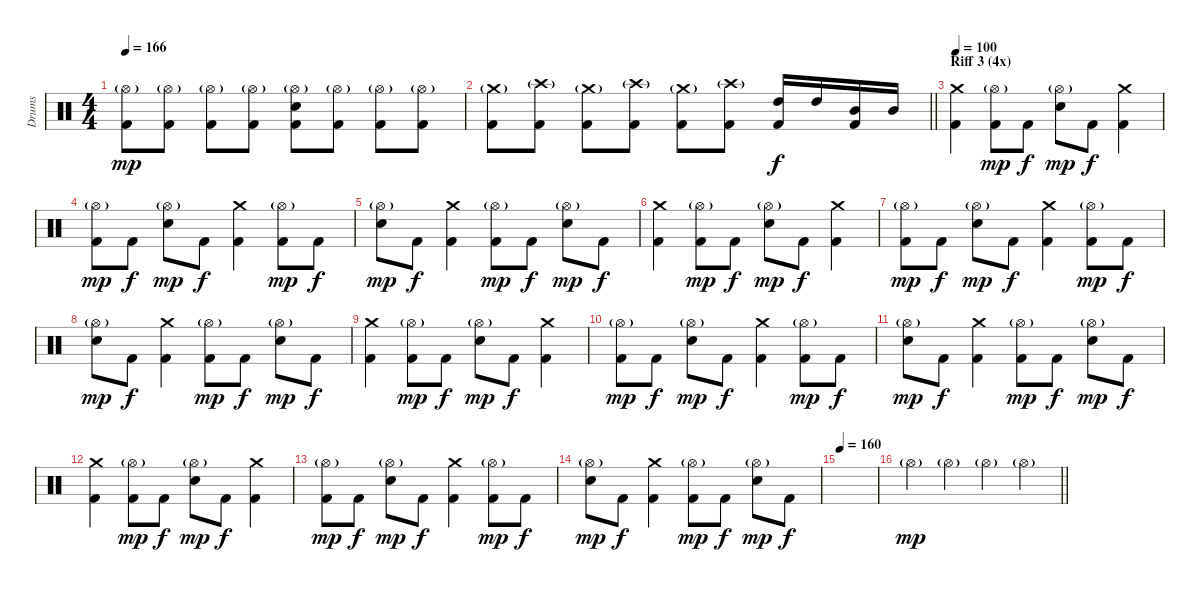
\track ("Drums" "Drums") {instrument percussion}
\staff {score}
\articulation defaults
\ts (4 4)
\tempo 166
\clef neutral
\ks c
("Hi-Hat (open)"{g} "Kick (hit) 2").8{dy mp} ("Hi-Hat (open)"{g} "Kick (hit) 2").8 ("Hi-Hat (open)"{g} "Kick (hit) 2").8 ("Hi-Hat (open)"{g} "Kick (hit) 2").8 ("Hi-Hat (open)"{g} "Electric Snare (hit)" "Kick (hit) 2").8 ("Hi-Hat (open)"{g} "Kick (hit) 2").8 ("Hi-Hat (open)"{g} "Kick (hit) 2").8 ("Hi-Hat (open)"{g} "Kick (hit) 2").8 |
\barLineRight lightlight
("Crash medium (hit)"{g} "Kick (hit) 2").8 ("Crash high (hit)"{g} "Kick (hit) 2").8 ("Crash medium (hit)"{g} "Kick (hit) 2").8 ("Crash high (hit)"{g} "Kick (hit) 2").8 ("Crash medium (hit)"{g} "Kick (hit) 2").8 ("Crash high (hit)"{g} "Kick (hit) 2").8 ("High Tom (hit)" "Kick (hit) 2").16{dy f} "High Tom (hit)".16 ("Mid Tom (hit)" "Kick (hit) 2").16 "Mid Tom (hit)".16 |
\section ("" "Riff 3 (4x)")
\tempo 100
("Crash medium (hit)" "Kick (hit) 2").4 ("Hi-Hat (open)"{g} "Kick (hit) 2").8{dy mp} "Kick (hit) 2".8{dy f} ("Hi-Hat (open)"{g} "Electric Snare (hit)").8{dy mp} "Kick (hit) 2".8{dy f} ("Crash medium (hit)" "Kick (hit) 2").4 |
("Hi-Hat (open)"{g} "Kick (hit) 2").8{dy mp} "Kick (hit) 2".8{dy f} ("Hi-Hat (open)"{g} "Electric Snare (hit)").8{dy mp} "Kick (hit) 2".8{dy f} ("Crash medium (hit)" "Kick (hit) 2").4 ("Hi-Hat (open)"{g} "Kick (hit) 2").8{dy mp} "Kick (hit) 2".8{dy f} |
("Hi-Hat (open)"{g} "Electric Snare (hit)").8{dy mp} "Kick (hit) 2".8{dy f} ("Crash medium (hit)" "Kick (hit) 2").4 ("Hi-Hat (open)"{g} "Kick (hit) 2").8{dy mp} "Kick (hit) 2".8{dy f} ("Hi-Hat (open)"{g} "Electric Snare (hit)").8{dy mp} "Kick (hit) 2".8{dy f} |
("Crash medium (hit)" "Kick (hit) 2").4 ("Hi-Hat (open)"{g} "Kick (hit) 2").8{dy mp} "Kick (hit) 2".8{dy f} ("Hi-Hat (open)"{g} "Electric Snare (hit)").8{dy mp} "Kick (hit) 2".8{dy f} ("Crash medium (hit)" "Kick (hit) 2").4 |
("Hi-Hat (open)"{g} "Kick (hit) 2").8{dy mp} "Kick (hit) 2".8{dy f} ("Hi-Hat (open)"{g} "Electric Snare (hit)").8{dy mp} "Kick (hit) 2".8{dy f} ("Crash medium (hit)" "Kick (hit) 2").4 ("Hi-Hat (open)"{g} "Kick (hit) 2").8{dy mp} "Kick (hit) 2".8{dy f} |
("Hi-Hat (open)"{g} "Electric Snare (hit)").8{dy mp} "Kick (hit) 2".8{dy f} ("Crash medium (hit)" "Kick (hit) 2").4 ("Hi-Hat (open)"{g} "Kick (hit) 2").8{dy mp} "Kick (hit) 2".8{dy f} ("Hi-Hat (open)"{g} "Electric Snare (hit)").8{dy mp} "Kick (hit) 2".8{dy f} |
("Crash medium (hit)" "Kick (hit) 2").4 ("Hi-Hat (open)"{g} "Kick (hit) 2").8{dy mp} "Kick (hit) 2".8{dy f} ("Hi-Hat (open)"{g} "Electric Snare (hit)").8{dy mp} "Kick (hit) 2".8{dy f} ("Crash medium (hit)" "Kick (hit) 2").4 |
("Hi-Hat (open)"{g} "Kick (hit) 2").8{dy mp} "Kick (hit) 2".8{dy f} ("Hi-Hat (open)"{g} "Electric Snare (hit)").8{dy mp} "Kick (hit) 2".8{dy f} ("Crash medium (hit)" "Kick (hit) 2").4 ("Hi-Hat (open)"{g} "Kick (hit) 2").8{dy mp} "Kick (hit) 2".8{dy f} |
("Hi-Hat (open)"{g} "Electric Snare (hit)").8{dy mp} "Kick (hit) 2".8{dy f} ("Crash medium (hit)" "Kick (hit) 2").4 ("Hi-Hat (open)"{g} "Kick (hit) 2").8{dy mp} "Kick (hit) 2".8{dy f} ("Hi-Hat (open)"{g} "Electric Snare (hit)").8{dy mp} "Kick (hit) 2".8{dy f} |
("Crash medium (hit)" "Kick (hit) 2").4 ("Hi-Hat (open)"{g} "Kick (hit) 2").8{dy mp} "Kick (hit) 2".8{dy f} ("Hi-Hat (open)"{g} "Electric Snare (hit)").8{dy mp} "Kick (hit) 2".8{dy f} ("Crash medium (hit)" "Kick (hit) 2").4 |
("Hi-Hat (open)"{g} "Kick (hit) 2").8{dy mp} "Kick (hit) 2".8{dy f} ("Hi-Hat (open)"{g} "Electric Snare (hit)").8{dy mp} "Kick (hit) 2".8{dy f} ("Crash medium (hit)" "Kick (hit) 2").4 ("Hi-Hat (open)"{g} "Kick (hit) 2").8{dy mp} "Kick (hit) 2".8{dy f} |
("Hi-Hat (open)"{g} "Electric Snare (hit)").8{dy mp} "Kick (hit) 2".8{dy f} ("Crash medium (hit)" "Kick (hit) 2").4 ("Hi-Hat (open)"{g} "Kick (hit) 2").8{dy mp} "Kick (hit) 2".8{dy f} ("Hi-Hat (open)"{g} "Electric Snare (hit)").8{dy mp} "Kick (hit) 2".8{dy f} |
\tempo 160
|
\barLineRight lightlight "Hi-Hat (open)"{g}.4{dy mp} "Hi-Hat (open)"{g}.4 "Hi-Hat (open)"{g}.4 "Hi-Hat (open)"{g}.4
